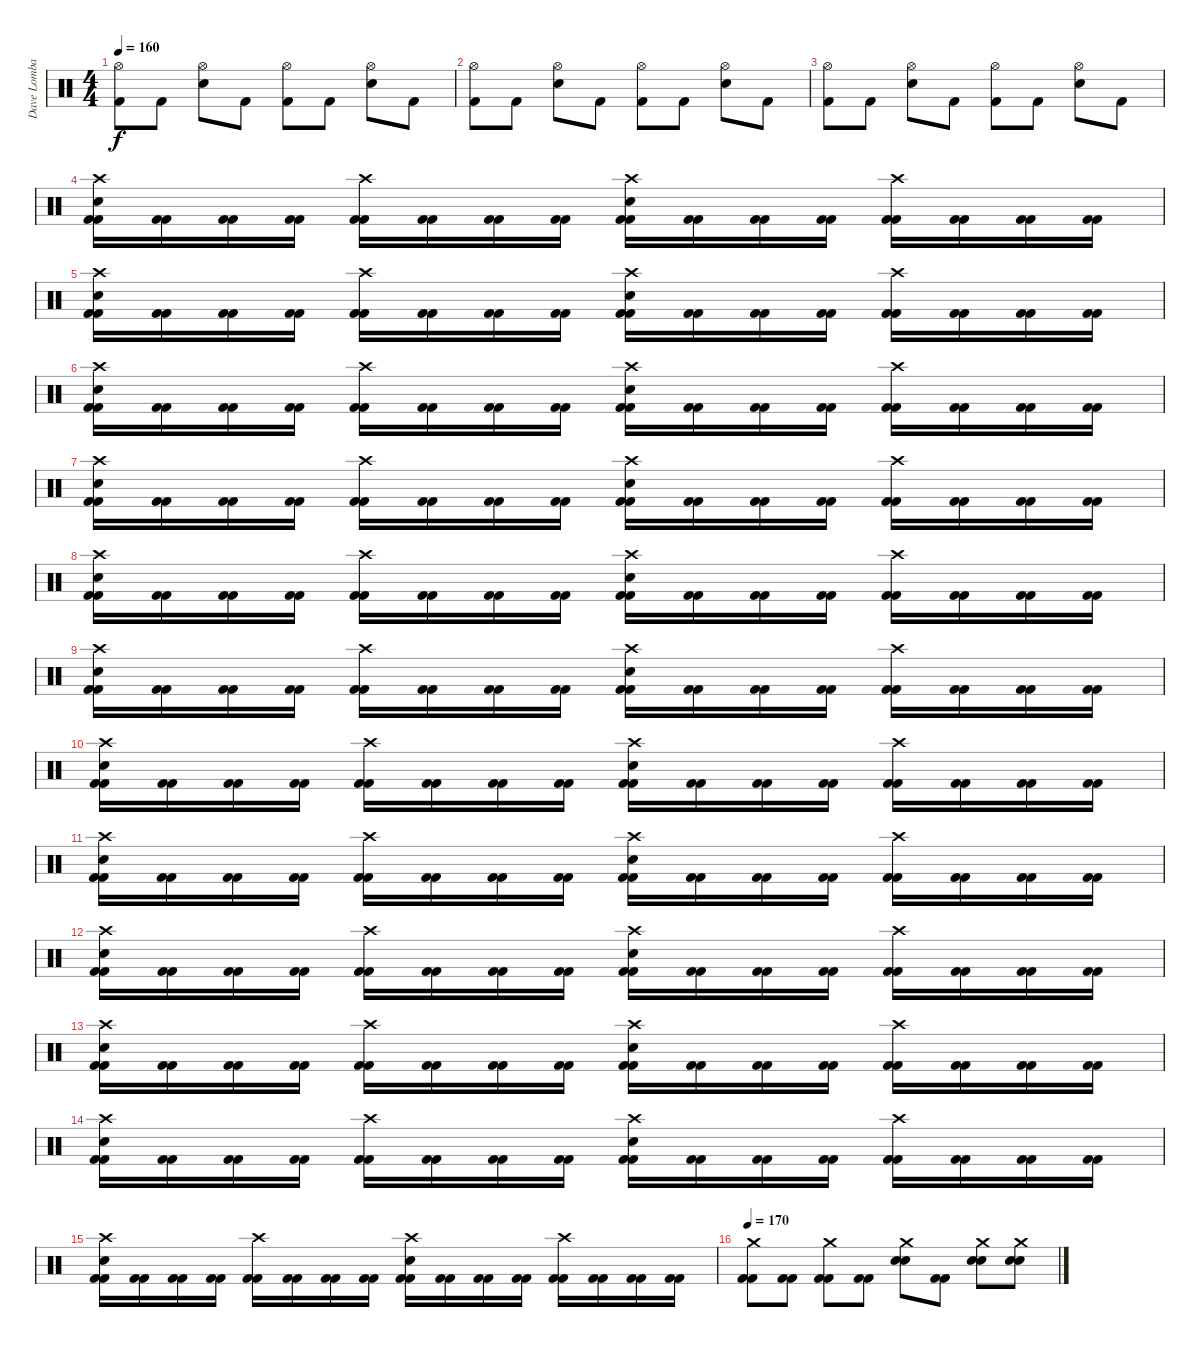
\track ("Dave Lombardo" "Dave Lomba") {instrument percussion}
\staff {score}
\articulation defaults
\ts (4 4)
\tempo 160
\clef neutral
\ks c
("Hi-Hat (open)" "Kick (hit) 2").8{dy f} "Kick (hit) 2".8 ("Hi-Hat (open)" "Electric Snare (hit)").8 "Kick (hit) 2".8 ("Hi-Hat (open)" "Kick (hit) 2").8 "Kick (hit) 2".8 ("Hi-Hat (open)" "Electric Snare (hit)").8 "Kick (hit) 2".8 |
("Hi-Hat (open)" "Kick (hit) 2").8 "Kick (hit) 2".8 ("Hi-Hat (open)" "Electric Snare (hit)").8 "Kick (hit) 2".8 ("Hi-Hat (open)" "Kick (hit) 2").8 "Kick (hit) 2".8 ("Hi-Hat (open)" "Electric Snare (hit)").8 "Kick (hit) 2".8 |
("Hi-Hat (open)" "Kick (hit) 2").8 "Kick (hit) 2".8 ("Hi-Hat (open)" "Electric Snare (hit)").8 "Kick (hit) 2".8 ("Hi-Hat (open)" "Kick (hit) 2").8 "Kick (hit) 2".8 ("Hi-Hat (open)" "Electric Snare (hit)").8 "Kick (hit) 2".8 |
("Crash high (hit)" "Electric Snare (hit)" "Kick (hit) 2" "Kick (hit) 2").16 ("Kick (hit) 2" "Kick (hit) 2").16 ("Kick (hit) 2" "Kick (hit) 2").16 ("Kick (hit) 2" "Kick (hit) 2").16 ("Crash high (hit)" "Kick (hit) 2" "Kick (hit) 2").16 ("Kick (hit) 2" "Kick (hit) 2").16 ("Kick (hit) 2" "Kick (hit) 2").16 ("Kick (hit) 2" "Kick (hit) 2").16 ("Crash high (hit)" "Electric Snare (hit)" "Kick (hit) 2" "Kick (hit) 2").16 ("Kick (hit) 2" "Kick (hit) 2").16 ("Kick (hit) 2" "Kick (hit) 2").16 ("Kick (hit) 2" "Kick (hit) 2").16 ("Crash high (hit)" "Kick (hit) 2" "Kick (hit) 2").16 ("Kick (hit) 2" "Kick (hit) 2").16 ("Kick (hit) 2" "Kick (hit) 2").16 ("Kick (hit) 2" "Kick (hit) 2").16 |
("Crash high (hit)" "Electric Snare (hit)" "Kick (hit) 2" "Kick (hit) 2").16 ("Kick (hit) 2" "Kick (hit) 2").16 ("Kick (hit) 2" "Kick (hit) 2").16 ("Kick (hit) 2" "Kick (hit) 2").16 ("Crash high (hit)" "Kick (hit) 2" "Kick (hit) 2").16 ("Kick (hit) 2" "Kick (hit) 2").16 ("Kick (hit) 2" "Kick (hit) 2").16 ("Kick (hit) 2" "Kick (hit) 2").16 ("Crash high (hit)" "Electric Snare (hit)" "Kick (hit) 2" "Kick (hit) 2").16 ("Kick (hit) 2" "Kick (hit) 2").16 ("Kick (hit) 2" "Kick (hit) 2").16 ("Kick (hit) 2" "Kick (hit) 2").16 ("Crash high (hit)" "Kick (hit) 2" "Kick (hit) 2").16 ("Kick (hit) 2" "Kick (hit) 2").16 ("Kick (hit) 2" "Kick (hit) 2").16 ("Kick (hit) 2" "Kick (hit) 2").16 |
("Crash high (hit)" "Electric Snare (hit)" "Kick (hit) 2" "Kick (hit) 2").16 ("Kick (hit) 2" "Kick (hit) 2").16 ("Kick (hit) 2" "Kick (hit) 2").16 ("Kick (hit) 2" "Kick (hit) 2").16 ("Crash high (hit)" "Kick (hit) 2" "Kick (hit) 2").16 ("Kick (hit) 2" "Kick (hit) 2").16 ("Kick (hit) 2" "Kick (hit) 2").16 ("Kick (hit) 2" "Kick (hit) 2").16 ("Crash high (hit)" "Electric Snare (hit)" "Kick (hit) 2" "Kick (hit) 2").16 ("Kick (hit) 2" "Kick (hit) 2").16 ("Kick (hit) 2" "Kick (hit) 2").16 ("Kick (hit) 2" "Kick (hit) 2").16 ("Crash high (hit)" "Kick (hit) 2" "Kick (hit) 2").16 ("Kick (hit) 2" "Kick (hit) 2").16 ("Kick (hit) 2" "Kick (hit) 2").16 ("Kick (hit) 2" "Kick (hit) 2").16 |
("Crash high (hit)" "Electric Snare (hit)" "Kick (hit) 2" "Kick (hit) 2").16 ("Kick (hit) 2" "Kick (hit) 2").16 ("Kick (hit) 2" "Kick (hit) 2").16 ("Kick (hit) 2" "Kick (hit) 2").16 ("Crash high (hit)" "Kick (hit) 2" "Kick (hit) 2").16 ("Kick (hit) 2" "Kick (hit) 2").16 ("Kick (hit) 2" "Kick (hit) 2").16 ("Kick (hit) 2" "Kick (hit) 2").16 ("Crash high (hit)" "Electric Snare (hit)" "Kick (hit) 2" "Kick (hit) 2").16 ("Kick (hit) 2" "Kick (hit) 2").16 ("Kick (hit) 2" "Kick (hit) 2").16 ("Kick (hit) 2" "Kick (hit) 2").16 ("Crash high (hit)" "Kick (hit) 2" "Kick (hit) 2").16 ("Kick (hit) 2" "Kick (hit) 2").16 ("Kick (hit) 2" "Kick (hit) 2").16 ("Kick (hit) 2" "Kick (hit) 2").16 |
("Crash high (hit)" "Electric Snare (hit)" "Kick (hit) 2" "Kick (hit) 2").16 ("Kick (hit) 2" "Kick (hit) 2").16 ("Kick (hit) 2" "Kick (hit) 2").16 ("Kick (hit) 2" "Kick (hit) 2").16 ("Crash high (hit)" "Kick (hit) 2" "Kick (hit) 2").16 ("Kick (hit) 2" "Kick (hit) 2").16 ("Kick (hit) 2" "Kick (hit) 2").16 ("Kick (hit) 2" "Kick (hit) 2").16 ("Crash high (hit)" "Electric Snare (hit)" "Kick (hit) 2" "Kick (hit) 2").16 ("Kick (hit) 2" "Kick (hit) 2").16 ("Kick (hit) 2" "Kick (hit) 2").16 ("Kick (hit) 2" "Kick (hit) 2").16 ("Crash high (hit)" "Kick (hit) 2" "Kick (hit) 2").16 ("Kick (hit) 2" "Kick (hit) 2").16 ("Kick (hit) 2" "Kick (hit) 2").16 ("Kick (hit) 2" "Kick (hit) 2").16 |
("Crash high (hit)" "Electric Snare (hit)" "Kick (hit) 2" "Kick (hit) 2").16 ("Kick (hit) 2" "Kick (hit) 2").16 ("Kick (hit) 2" "Kick (hit) 2").16 ("Kick (hit) 2" "Kick (hit) 2").16 ("Crash high (hit)" "Kick (hit) 2" "Kick (hit) 2").16 ("Kick (hit) 2" "Kick (hit) 2").16 ("Kick (hit) 2" "Kick (hit) 2").16 ("Kick (hit) 2" "Kick (hit) 2").16 ("Crash high (hit)" "Electric Snare (hit)" "Kick (hit) 2" "Kick (hit) 2").16 ("Kick (hit) 2" "Kick (hit) 2").16 ("Kick (hit) 2" "Kick (hit) 2").16 ("Kick (hit) 2" "Kick (hit) 2").16 ("Crash high (hit)" "Kick (hit) 2" "Kick (hit) 2").16 ("Kick (hit) 2" "Kick (hit) 2").16 ("Kick (hit) 2" "Kick (hit) 2").16 ("Kick (hit) 2" "Kick (hit) 2").16 |
("Crash high (hit)" "Electric Snare (hit)" "Kick (hit) 2" "Kick (hit) 2").16 ("Kick (hit) 2" "Kick (hit) 2").16 ("Kick (hit) 2" "Kick (hit) 2").16 ("Kick (hit) 2" "Kick (hit) 2").16 ("Crash high (hit)" "Kick (hit) 2" "Kick (hit) 2").16 ("Kick (hit) 2" "Kick (hit) 2").16 ("Kick (hit) 2" "Kick (hit) 2").16 ("Kick (hit) 2" "Kick (hit) 2").16 ("Crash high (hit)" "Electric Snare (hit)" "Kick (hit) 2" "Kick (hit) 2").16 ("Kick (hit) 2" "Kick (hit) 2").16 ("Kick (hit) 2" "Kick (hit) 2").16 ("Kick (hit) 2" "Kick (hit) 2").16 ("Crash high (hit)" "Kick (hit) 2" "Kick (hit) 2").16 ("Kick (hit) 2" "Kick (hit) 2").16 ("Kick (hit) 2" "Kick (hit) 2").16 ("Kick (hit) 2" "Kick (hit) 2").16 |
("Crash high (hit)" "Electric Snare (hit)" "Kick (hit) 2" "Kick (hit) 2").16 ("Kick (hit) 2" "Kick (hit) 2").16 ("Kick (hit) 2" "Kick (hit) 2").16 ("Kick (hit) 2" "Kick (hit) 2").16 ("Crash high (hit)" "Kick (hit) 2" "Kick (hit) 2").16 ("Kick (hit) 2" "Kick (hit) 2").16 ("Kick (hit) 2" "Kick (hit) 2").16 ("Kick (hit) 2" "Kick (hit) 2").16 ("Crash high (hit)" "Electric Snare (hit)" "Kick (hit) 2" "Kick (hit) 2").16 ("Kick (hit) 2" "Kick (hit) 2").16 ("Kick (hit) 2" "Kick (hit) 2").16 ("Kick (hit) 2" "Kick (hit) 2").16 ("Crash high (hit)" "Kick (hit) 2" "Kick (hit) 2").16 ("Kick (hit) 2" "Kick (hit) 2").16 ("Kick (hit) 2" "Kick (hit) 2").16 ("Kick (hit) 2" "Kick (hit) 2").16 |
("Crash high (hit)" "Electric Snare (hit)" "Kick (hit) 2" "Kick (hit) 2").16 ("Kick (hit) 2" "Kick (hit) 2").16 ("Kick (hit) 2" "Kick (hit) 2").16 ("Kick (hit) 2" "Kick (hit) 2").16 ("Crash high (hit)" "Kick (hit) 2" "Kick (hit) 2").16 ("Kick (hit) 2" "Kick (hit) 2").16 ("Kick (hit) 2" "Kick (hit) 2").16 ("Kick (hit) 2" "Kick (hit) 2").16 ("Crash high (hit)" "Electric Snare (hit)" "Kick (hit) 2" "Kick (hit) 2").16 ("Kick (hit) 2" "Kick (hit) 2").16 ("Kick (hit) 2" "Kick (hit) 2").16 ("Kick (hit) 2" "Kick (hit) 2").16 ("Crash high (hit)" "Kick (hit) 2" "Kick (hit) 2").16 ("Kick (hit) 2" "Kick (hit) 2").16 ("Kick (hit) 2" "Kick (hit) 2").16 ("Kick (hit) 2" "Kick (hit) 2").16 |
("Crash high (hit)" "Electric Snare (hit)" "Kick (hit) 2" "Kick (hit) 2").16 ("Kick (hit) 2" "Kick (hit) 2").16 ("Kick (hit) 2" "Kick (hit) 2").16 ("Kick (hit) 2" "Kick (hit) 2").16 ("Crash high (hit)" "Kick (hit) 2" "Kick (hit) 2").16 ("Kick (hit) 2" "Kick (hit) 2").16 ("Kick (hit) 2" "Kick (hit) 2").16 ("Kick (hit) 2" "Kick (hit) 2").16 ("Crash high (hit)" "Electric Snare (hit)" "Kick (hit) 2" "Kick (hit) 2").16 ("Kick (hit) 2" "Kick (hit) 2").16 ("Kick (hit) 2" "Kick (hit) 2").16 ("Kick (hit) 2" "Kick (hit) 2").16 ("Crash high (hit)" "Kick (hit) 2" "Kick (hit) 2").16 ("Kick (hit) 2" "Kick (hit) 2").16 ("Kick (hit) 2" "Kick (hit) 2").16 ("Kick (hit) 2" "Kick (hit) 2").16 |
("Crash high (hit)" "Electric Snare (hit)" "Kick (hit) 2" "Kick (hit) 2").16 ("Kick (hit) 2" "Kick (hit) 2").16 ("Kick (hit) 2" "Kick (hit) 2").16 ("Kick (hit) 2" "Kick (hit) 2").16 ("Crash high (hit)" "Kick (hit) 2" "Kick (hit) 2").16 ("Kick (hit) 2" "Kick (hit) 2").16 ("Kick (hit) 2" "Kick (hit) 2").16 ("Kick (hit) 2" "Kick (hit) 2").16 ("Crash high (hit)" "Electric Snare (hit)" "Kick (hit) 2" "Kick (hit) 2").16 ("Kick (hit) 2" "Kick (hit) 2").16 ("Kick (hit) 2" "Kick (hit) 2").16 ("Kick (hit) 2" "Kick (hit) 2").16 ("Crash high (hit)" "Kick (hit) 2" "Kick (hit) 2").16 ("Kick (hit) 2" "Kick (hit) 2").16 ("Kick (hit) 2" "Kick (hit) 2").16 ("Kick (hit) 2" "Kick (hit) 2").16 |
("Crash high (hit)" "Electric Snare (hit)" "Kick (hit) 2" "Kick (hit) 2").16 ("Kick (hit) 2" "Kick (hit) 2").16 ("Kick (hit) 2" "Kick (hit) 2").16 ("Kick (hit) 2" "Kick (hit) 2").16 ("Crash high (hit)" "Kick (hit) 2" "Kick (hit) 2").16 ("Kick (hit) 2" "Kick (hit) 2").16 ("Kick (hit) 2" "Kick (hit) 2").16 ("Kick (hit) 2" "Kick (hit) 2").16 ("Crash high (hit)" "Electric Snare (hit)" "Kick (hit) 2" "Kick (hit) 2").16 ("Kick (hit) 2" "Kick (hit) 2").16 ("Kick (hit) 2" "Kick (hit) 2").16 ("Kick (hit) 2" "Kick (hit) 2").16 ("Crash high (hit)" "Kick (hit) 2" "Kick (hit) 2").16 ("Kick (hit) 2" "Kick (hit) 2").16 ("Kick (hit) 2" "Kick (hit) 2").16 ("Kick (hit) 2" "Kick (hit) 2").16 |
\tempo 170
("Crash medium (hit)" "Kick (hit) 2" "Kick (hit) 2").8 ("Kick (hit) 2" "Kick (hit) 2").8{txt " "} ("Crash medium (hit)" "Kick (hit) 2" "Kick (hit) 2").8 ("Kick (hit) 2" "Kick (hit) 2").8 ("Crash medium (hit)" "Snare (hit) 2" "Snare (hit) 2").8 ("Kick (hit) 2" "Kick (hit) 2").8 ("Crash medium (hit)" "Snare (hit) 2" "Snare (hit) 2").8 ("Crash medium (hit)" "Snare (hit) 2" "Snare (hit) 2").8
